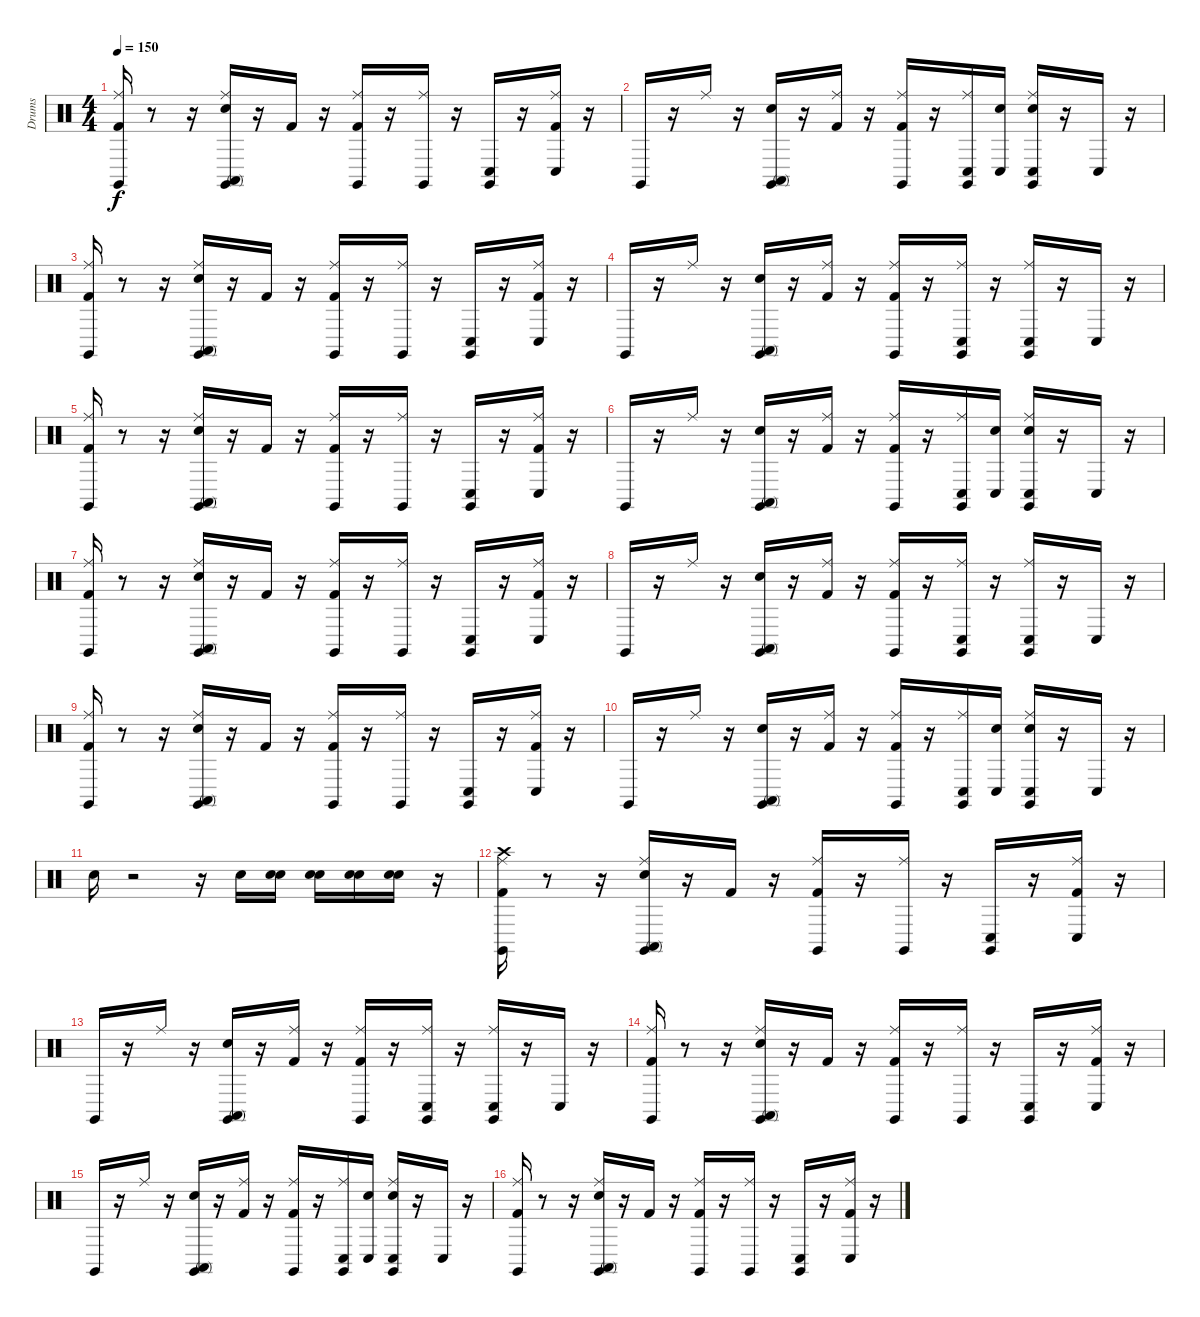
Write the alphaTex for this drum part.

\track ("Drums" "Drums") {instrument percussion}
\staff {score}
\articulation defaults
\ts (4 4)
\tempo 150
\clef neutral
\ks c
("Kick (hit) 2" "Ride (middle)" "Claves (hit)").16{dy f} r.8 r.16 ("Snare (hit) 2" "Ride (middle)" "Conga high (mute)" "Claves (hit)").16 r.16 "Kick (hit) 2".16 r.16 ("Kick (hit) 2" "Ride (middle)" "Claves (hit)").16 r.16 ("Ride (middle)" "Claves (hit)").16 r.16 ("Conga low (hit)" "Claves (hit)").16 r.16 ("Kick (hit) 2" "Ride (middle)" "Conga low (hit)").16 r.16 |
"Claves (hit)".16 r.16 "Ride (middle)".16 r.16 ("Snare (hit) 2" "Conga high (mute)" "Claves (hit)").16 r.16 ("Kick (hit) 2" "Ride (middle)").16 r.16 ("Kick (hit) 2" "Ride (middle)" "Claves (hit)").16 r.16 ("Ride (middle)" "Conga low (hit)" "Claves (hit)").16 ("Snare (hit)" "Conga low (hit)").16 ("Snare (hit)" "Ride (middle)" "Conga low (hit)" "Claves (hit)").16 r.16 "Conga low (hit)".16 r.16 |
("Kick (hit) 2" "Ride (middle)" "Claves (hit)").16 r.8 r.16 ("Snare (hit) 2" "Ride (middle)" "Conga high (mute)" "Claves (hit)").16 r.16 "Kick (hit) 2".16 r.16 ("Kick (hit) 2" "Ride (middle)" "Claves (hit)").16 r.16 ("Ride (middle)" "Claves (hit)").16 r.16 ("Conga low (hit)" "Claves (hit)").16 r.16 ("Kick (hit) 2" "Ride (middle)" "Conga low (hit)").16 r.16 |
"Claves (hit)".16 r.16 "Ride (middle)".16 r.16 ("Snare (hit) 2" "Conga high (mute)" "Claves (hit)").16 r.16 ("Kick (hit) 2" "Ride (middle)").16 r.16 ("Kick (hit) 2" "Ride (middle)" "Claves (hit)").16 r.16 ("Ride (middle)" "Conga low (hit)" "Claves (hit)").16 r.16 ("Ride (middle)" "Conga low (hit)" "Claves (hit)").16 r.16 "Conga low (hit)".16 r.16 |
("Kick (hit) 2" "Ride (middle)" "Claves (hit)").16 r.8 r.16 ("Snare (hit) 2" "Ride (middle)" "Conga high (mute)" "Claves (hit)").16 r.16 "Kick (hit) 2".16 r.16 ("Kick (hit) 2" "Ride (middle)" "Claves (hit)").16 r.16 ("Ride (middle)" "Claves (hit)").16 r.16 ("Conga low (hit)" "Claves (hit)").16 r.16 ("Kick (hit) 2" "Ride (middle)" "Conga low (hit)").16 r.16 |
"Claves (hit)".16 r.16 "Ride (middle)".16 r.16 ("Snare (hit) 2" "Conga high (mute)" "Claves (hit)").16 r.16 ("Kick (hit) 2" "Ride (middle)").16 r.16 ("Kick (hit) 2" "Ride (middle)" "Claves (hit)").16 r.16 ("Ride (middle)" "Conga low (hit)" "Claves (hit)").16 ("Snare (hit)" "Conga low (hit)").16 ("Snare (hit)" "Ride (middle)" "Conga low (hit)" "Claves (hit)").16 r.16 "Conga low (hit)".16 r.16 |
("Kick (hit) 2" "Ride (middle)" "Claves (hit)").16 r.8 r.16 ("Snare (hit) 2" "Ride (middle)" "Conga high (mute)" "Claves (hit)").16 r.16 "Kick (hit) 2".16 r.16 ("Kick (hit) 2" "Ride (middle)" "Claves (hit)").16 r.16 ("Ride (middle)" "Claves (hit)").16 r.16 ("Conga low (hit)" "Claves (hit)").16 r.16 ("Kick (hit) 2" "Ride (middle)" "Conga low (hit)").16 r.16 |
"Claves (hit)".16 r.16 "Ride (middle)".16 r.16 ("Snare (hit) 2" "Conga high (mute)" "Claves (hit)").16 r.16 ("Kick (hit) 2" "Ride (middle)").16 r.16 ("Kick (hit) 2" "Ride (middle)" "Claves (hit)").16 r.16 ("Ride (middle)" "Conga low (hit)" "Claves (hit)").16 r.16 ("Ride (middle)" "Conga low (hit)" "Claves (hit)").16 r.16 "Conga low (hit)".16 r.16 |
("Kick (hit) 2" "Ride (middle)" "Claves (hit)").16 r.8 r.16 ("Snare (hit) 2" "Ride (middle)" "Conga high (mute)" "Claves (hit)").16 r.16 "Kick (hit) 2".16 r.16 ("Kick (hit) 2" "Ride (middle)" "Claves (hit)").16 r.16 ("Ride (middle)" "Claves (hit)").16 r.16 ("Conga low (hit)" "Claves (hit)").16 r.16 ("Kick (hit) 2" "Ride (middle)" "Conga low (hit)").16 r.16 |
"Claves (hit)".16 r.16 "Ride (middle)".16 r.16 ("Snare (hit) 2" "Conga high (mute)" "Claves (hit)").16 r.16 ("Kick (hit) 2" "Ride (middle)").16 r.16 ("Kick (hit) 2" "Ride (middle)" "Claves (hit)").16 r.16 ("Ride (middle)" "Conga low (hit)" "Claves (hit)").16 ("Snare (hit)" "Conga low (hit)").16 ("Snare (hit)" "Ride (middle)" "Conga low (hit)" "Claves (hit)").16 r.16 "Conga low (hit)".16 r.16 |
"Snare (hit) 2".16 r.2 r.16 "Snare (hit) 2".16 ("Snare (hit)" "Snare (hit) 2").16 ("Snare (hit)" "Snare (hit) 2").16 ("Snare (hit)" "Snare (hit) 2").16 ("Snare (hit)" "Snare (hit) 2").16 r.16 |
("Kick (hit) 2" "Crash high (hit)" "Ride (middle)" "Claves (hit)").16 r.8 r.16 ("Snare (hit) 2" "Ride (middle)" "Conga high (mute)" "Claves (hit)").16 r.16 "Kick (hit) 2".16 r.16 ("Kick (hit) 2" "Ride (middle)" "Claves (hit)").16 r.16 ("Ride (middle)" "Claves (hit)").16 r.16 ("Conga low (hit)" "Claves (hit)").16 r.16 ("Kick (hit) 2" "Ride (middle)" "Conga low (hit)").16 r.16 |
"Claves (hit)".16 r.16 "Ride (middle)".16 r.16 ("Snare (hit) 2" "Conga high (mute)" "Claves (hit)").16 r.16 ("Kick (hit) 2" "Ride (middle)").16 r.16 ("Kick (hit) 2" "Ride (middle)" "Claves (hit)").16 r.16 ("Ride (middle)" "Conga low (hit)" "Claves (hit)").16 r.16 ("Ride (middle)" "Conga low (hit)" "Claves (hit)").16 r.16 "Conga low (hit)".16 r.16 |
("Kick (hit) 2" "Ride (middle)" "Claves (hit)").16 r.8 r.16 ("Snare (hit) 2" "Ride (middle)" "Conga high (mute)" "Claves (hit)").16 r.16 "Kick (hit) 2".16 r.16 ("Kick (hit) 2" "Ride (middle)" "Claves (hit)").16 r.16 ("Ride (middle)" "Claves (hit)").16 r.16 ("Conga low (hit)" "Claves (hit)").16 r.16 ("Kick (hit) 2" "Ride (middle)" "Conga low (hit)").16 r.16 |
"Claves (hit)".16 r.16 "Ride (middle)".16 r.16 ("Snare (hit) 2" "Conga high (mute)" "Claves (hit)").16 r.16 ("Kick (hit) 2" "Ride (middle)").16 r.16 ("Kick (hit) 2" "Ride (middle)" "Claves (hit)").16 r.16 ("Ride (middle)" "Conga low (hit)" "Claves (hit)").16 ("Snare (hit)" "Conga low (hit)").16 ("Snare (hit)" "Ride (middle)" "Conga low (hit)" "Claves (hit)").16 r.16 "Conga low (hit)".16 r.16 |
("Kick (hit) 2" "Ride (middle)" "Claves (hit)").16 r.8 r.16 ("Snare (hit) 2" "Ride (middle)" "Conga high (mute)" "Claves (hit)").16 r.16 "Kick (hit) 2".16 r.16 ("Kick (hit) 2" "Ride (middle)" "Claves (hit)").16 r.16 ("Ride (middle)" "Claves (hit)").16 r.16 ("Conga low (hit)" "Claves (hit)").16 r.16 ("Kick (hit) 2" "Ride (middle)" "Conga low (hit)").16 r.16
